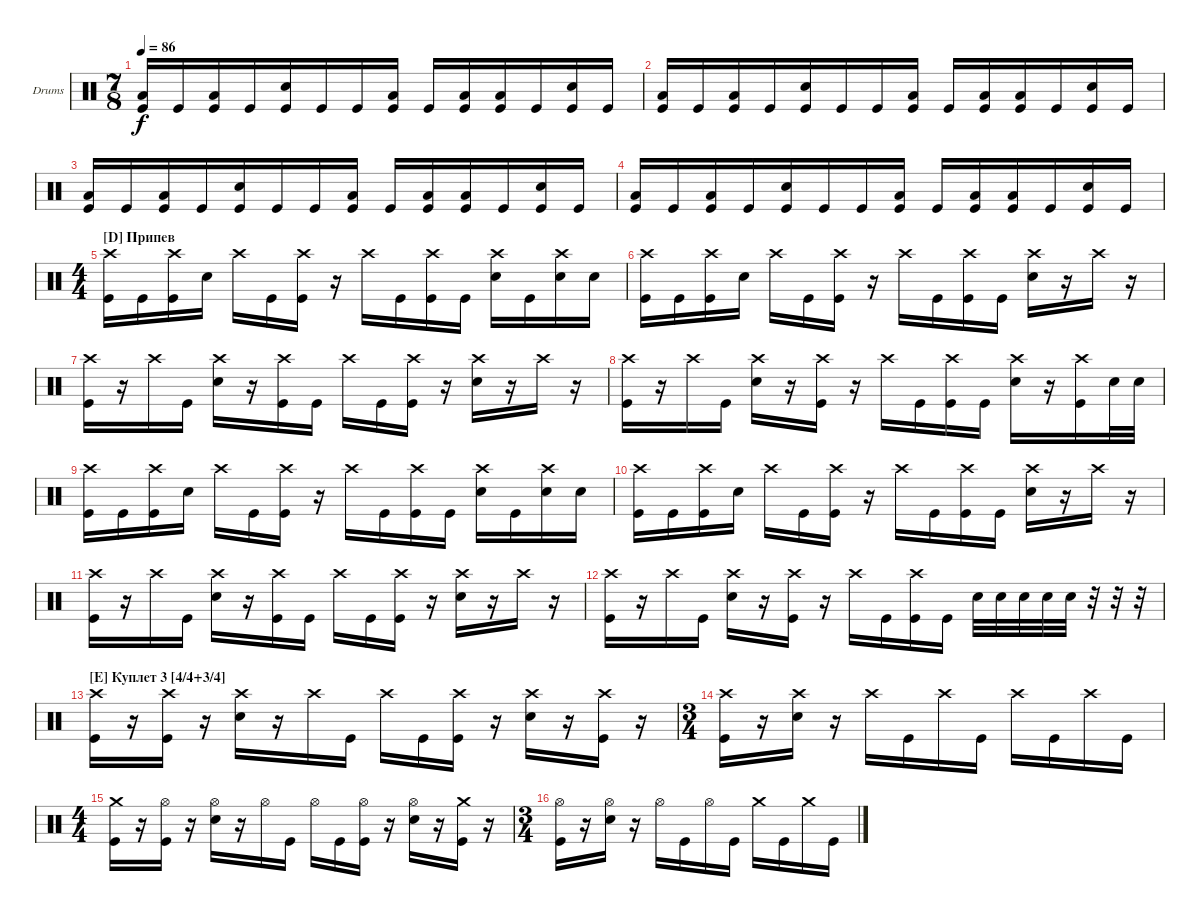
\bracketExtendMode groupsimilarinstruments
\firstSystemTrackNameOrientation horizontal
\otherSystemsTrackNameOrientation horizontal
\track ("Drumkit" "Drums") {instrument percussion}
\staff {score}
\articulation defaults
\ts (7 8)
\tempo 86
\clef neutral
\ks c
("Low Tom (hit)" "Kick (hit)").16{dy f} "Kick (hit)".16 ("Kick (hit)" "Low Tom (hit)").16 "Kick (hit)".16 ("Snare (hit) 2" "Kick (hit)").16 "Kick (hit)".16 "Kick (hit)".16 ("Low Tom (hit)" "Kick (hit)").16 "Kick (hit)".16 ("Kick (hit)" "Low Tom (hit)").16 ("Kick (hit)" "Low Tom (hit)").16 "Kick (hit)".16 ("Snare (hit) 2" "Kick (hit)").16 "Kick (hit)".16 |
("Low Tom (hit)" "Kick (hit)").16 "Kick (hit)".16 ("Kick (hit)" "Low Tom (hit)").16 "Kick (hit)".16 ("Snare (hit) 2" "Kick (hit)").16 "Kick (hit)".16 "Kick (hit)".16 ("Low Tom (hit)" "Kick (hit)").16 "Kick (hit)".16 ("Kick (hit)" "Low Tom (hit)").16 ("Kick (hit)" "Low Tom (hit)").16 "Kick (hit)".16 ("Snare (hit) 2" "Kick (hit)").16 "Kick (hit)".16 |
("Low Tom (hit)" "Kick (hit)").16 "Kick (hit)".16 ("Kick (hit)" "Low Tom (hit)").16 "Kick (hit)".16 ("Snare (hit) 2" "Kick (hit)").16 "Kick (hit)".16 "Kick (hit)".16 ("Kick (hit)" "Low Tom (hit)").16 "Kick (hit)".16 ("Kick (hit)" "Low Tom (hit)").16 ("Kick (hit)" "Low Tom (hit)").16 "Kick (hit)".16 ("Snare (hit) 2" "Kick (hit)").16 "Kick (hit)".16 |
("Low Tom (hit)" "Kick (hit)").16 "Kick (hit)".16 ("Kick (hit)" "Low Tom (hit)").16 "Kick (hit)".16 ("Snare (hit) 2" "Kick (hit)").16 "Kick (hit)".16 "Kick (hit)".16 ("Low Tom (hit)" "Kick (hit)").16 "Kick (hit)".16 ("Kick (hit)" "Low Tom (hit)").16 ("Kick (hit)" "Low Tom (hit)").16 "Kick (hit)".16 ("Snare (hit) 2" "Kick (hit)").16 "Kick (hit)".16 |
\ts (4 4)
\section ("D" "Припев")
("Crash high (hit)" "Kick (hit)").16 "Kick (hit)".16 ("Crash high (hit)" "Kick (hit)").16 "Snare (hit) 2".16 "Crash high (hit)".16 "Kick (hit)".16 ("Crash high (hit)" "Kick (hit)").16 r.16 "Crash high (hit)".16 "Kick (hit)".16 ("Crash high (hit)" "Kick (hit)").16 "Kick (hit)".16 ("Crash high (hit)" "Snare (hit) 2").16 "Kick (hit)".16 ("Crash high (hit)" "Snare (hit) 2").16 "Snare (hit) 2".16 |
("Crash high (hit)" "Kick (hit)").16 "Kick (hit)".16 ("Crash high (hit)" "Kick (hit)").16 "Snare (hit) 2".16 "Crash high (hit)".16 "Kick (hit)".16 ("Crash high (hit)" "Kick (hit)").16 r.16 "Crash high (hit)".16 "Kick (hit)".16 ("Crash high (hit)" "Kick (hit)").16 "Kick (hit)".16 ("Crash high (hit)" "Snare (hit) 2").16 r.16 "Crash high (hit)".16 r.16 |
("Crash high (hit)" "Kick (hit)").16 r.16 "Crash high (hit)".16 "Kick (hit)".16 ("Crash high (hit)" "Snare (hit) 2").16 r.16 ("Crash high (hit)" "Kick (hit)").16 "Kick (hit)".16 "Crash high (hit)".16 "Kick (hit)".16 ("Crash high (hit)" "Kick (hit)").16 r.16 ("Crash high (hit)" "Snare (hit) 2").16 r.16 "Crash high (hit)".16 r.16 |
("Crash high (hit)" "Kick (hit)").16 r.16 "Crash high (hit)".16 "Kick (hit)".16 ("Crash high (hit)" "Snare (hit) 2").16 r.16 ("Crash high (hit)" "Kick (hit)").16 r.16 "Crash high (hit)".16 "Kick (hit)".16 ("Crash high (hit)" "Kick (hit)").16 "Kick (hit)".16 ("Crash high (hit)" "Snare (hit) 2").16 r.16 ("Crash high (hit)" "Kick (hit)").16 "Snare (hit) 2".32 "Snare (hit) 2".32 |
("Crash high (hit)" "Kick (hit)").16 "Kick (hit)".16 ("Crash high (hit)" "Kick (hit)").16 "Snare (hit) 2".16 "Crash high (hit)".16 "Kick (hit)".16 ("Crash high (hit)" "Kick (hit)").16 r.16 "Crash high (hit)".16 "Kick (hit)".16 ("Crash high (hit)" "Kick (hit)").16 "Kick (hit)".16 ("Crash high (hit)" "Snare (hit) 2").16 "Kick (hit)".16 ("Crash high (hit)" "Snare (hit) 2").16 "Snare (hit) 2".16 |
("Crash high (hit)" "Kick (hit)").16 "Kick (hit)".16 ("Crash high (hit)" "Kick (hit)").16 "Snare (hit) 2".16 "Crash high (hit)".16 "Kick (hit)".16 ("Crash high (hit)" "Kick (hit)").16 r.16 "Crash high (hit)".16 "Kick (hit)".16 ("Crash high (hit)" "Kick (hit)").16 "Kick (hit)".16 ("Crash high (hit)" "Snare (hit) 2").16 r.16 "Crash high (hit)".16 r.16 |
("Crash high (hit)" "Kick (hit)").16 r.16 "Crash high (hit)".16 "Kick (hit)".16 ("Crash high (hit)" "Snare (hit) 2").16 r.16 ("Crash high (hit)" "Kick (hit)").16 "Kick (hit)".16 "Crash high (hit)".16 "Kick (hit)".16 ("Crash high (hit)" "Kick (hit)").16 r.16 ("Crash high (hit)" "Snare (hit) 2").16 r.16 "Crash high (hit)".16 r.16 |
("Crash high (hit)" "Kick (hit)").16 r.16 "Crash high (hit)".16 "Kick (hit)".16 ("Crash high (hit)" "Snare (hit) 2").16 r.16 ("Crash high (hit)" "Kick (hit)").16 r.16 "Crash high (hit)".16 "Kick (hit)".16 ("Crash high (hit)" "Kick (hit)").16 "Kick (hit)".16 "Snare (hit) 2".32 "Snare (hit) 2".32 "Snare (hit) 2".32 "Snare (hit) 2".32 "Snare (hit) 2".32 r.32 r.32 r.32 |
\section ("E" "Куплет 3 [4/4+3/4]")
("Crash high (hit)" "Kick (hit)").16 r.16 ("Crash high (hit)" "Kick (hit)").16 r.16 ("Crash high (hit)" "Snare (hit) 2").16 r.16 "Crash high (hit)".16 "Kick (hit)".16 "Crash high (hit)".16 "Kick (hit)".16 ("Crash high (hit)" "Kick (hit)").16 r.16 ("Crash high (hit)" "Snare (hit) 2").16 r.16 ("Crash high (hit)" "Kick (hit)").16 r.16 |
\ts (3 4)
("Crash high (hit)" "Kick (hit)").16 r.16 ("Crash high (hit)" "Snare (hit) 2").16 r.16 "Crash high (hit)".16 "Kick (hit)".16 "Crash high (hit)".16 "Kick (hit)".16 "Crash high (hit)".16 "Kick (hit)".16 "Crash high (hit)".16 "Kick (hit)".16 |
\ts (4 4)
("Crash medium (hit)" "Kick (hit)").16 r.16 ("Hi-Hat (open)" "Kick (hit)").16 r.16 ("Snare (hit) 2" "Hi-Hat (open)").16 r.16 "Hi-Hat (open)".16 "Kick (hit)".16 "Hi-Hat (open)".16 "Kick (hit)".16 ("Kick (hit)" "Hi-Hat (open)").16 r.16 ("Snare (hit) 2" "Hi-Hat (open)").16 r.16 ("Crash medium (hit)" "Kick (hit)").16 r.16 |
\ts (3 4)
("Hi-Hat (open)" "Kick (hit)").16 r.16 ("Snare (hit) 2" "Hi-Hat (open)").16 r.16 "Hi-Hat (open)".16 "Kick (hit)".16 "Hi-Hat (open)".16 "Kick (hit)".16 "Crash medium (hit)".16 "Kick (hit)".16 "Crash medium (hit)".16 "Kick (hit)".16
